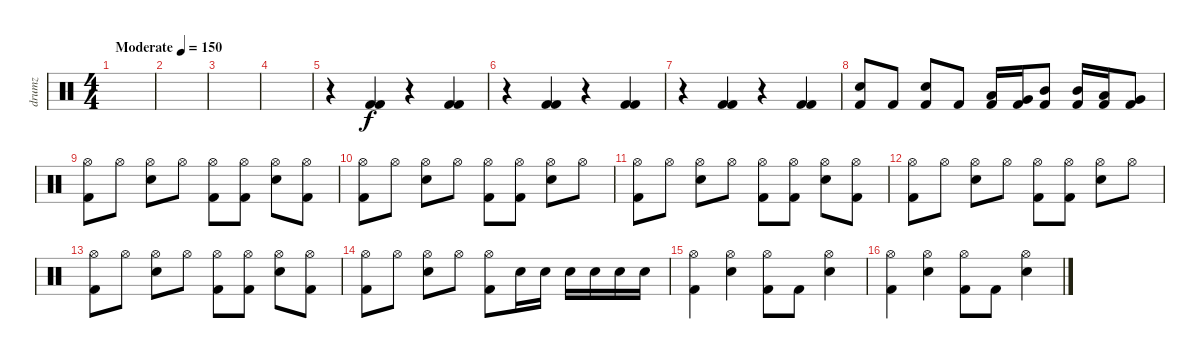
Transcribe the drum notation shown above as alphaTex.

\track ("drumz" "drumz") {instrument percussion}
\staff {score}
\articulation defaults
\ts (4 4)
\tempo (150 "Moderate")
\clef neutral
\ks c
|
|
|
|
r.4 ("Kick (hit) 2" "Kick (hit) 2").4 r.4 ("Kick (hit) 2" "Kick (hit) 2").4 |
r.4 ("Kick (hit) 2" "Kick (hit) 2").4 r.4 ("Kick (hit) 2" "Kick (hit) 2").4 |
r.4 ("Kick (hit) 2" "Kick (hit) 2").4 r.4 ("Kick (hit) 2" "Kick (hit) 2").4 |
("Electric Snare (hit)" "Kick (hit) 2").8 "Kick (hit) 2".8 ("Electric Snare (hit)" "Kick (hit) 2").8 "Kick (hit) 2".8 ("Low Tom (hit)" "Kick (hit) 2").16 ("Very Low Tom (hit)" "Kick (hit) 2").16 ("Mid Tom (hit)" "Kick (hit) 2").8 ("Mid Tom (hit)" "Kick (hit) 2").16 ("Low Tom (hit)" "Kick (hit) 2").16 ("Very Low Tom (hit)" "Kick (hit) 2").8 |
("Hi-Hat (open)" "Kick (hit) 2").8 "Hi-Hat (open)".8 ("Hi-Hat (open)" "Electric Snare (hit)").8 "Hi-Hat (open)".8 ("Hi-Hat (open)" "Kick (hit) 2").8 ("Hi-Hat (open)" "Kick (hit) 2").8 ("Hi-Hat (open)" "Electric Snare (hit)").8 ("Hi-Hat (open)" "Kick (hit) 2").8 |
("Hi-Hat (open)" "Kick (hit) 2").8 "Hi-Hat (open)".8 ("Hi-Hat (open)" "Electric Snare (hit)").8 "Hi-Hat (open)".8 ("Hi-Hat (open)" "Kick (hit) 2").8 ("Hi-Hat (open)" "Kick (hit) 2").8 ("Hi-Hat (open)" "Electric Snare (hit)").8 "Hi-Hat (open)".8 |
("Hi-Hat (open)" "Kick (hit) 2").8 "Hi-Hat (open)".8 ("Hi-Hat (open)" "Electric Snare (hit)").8 "Hi-Hat (open)".8 ("Hi-Hat (open)" "Kick (hit) 2").8 ("Hi-Hat (open)" "Kick (hit) 2").8 ("Hi-Hat (open)" "Electric Snare (hit)").8 ("Hi-Hat (open)" "Kick (hit) 2").8 |
("Hi-Hat (open)" "Kick (hit) 2").8 "Hi-Hat (open)".8 ("Hi-Hat (open)" "Electric Snare (hit)").8 "Hi-Hat (open)".8 ("Hi-Hat (open)" "Kick (hit) 2").8 ("Hi-Hat (open)" "Kick (hit) 2").8 ("Hi-Hat (open)" "Electric Snare (hit)").8 "Hi-Hat (open)".8 |
("Hi-Hat (open)" "Kick (hit) 2").8 "Hi-Hat (open)".8 ("Hi-Hat (open)" "Electric Snare (hit)").8 "Hi-Hat (open)".8 ("Hi-Hat (open)" "Kick (hit) 2").8 ("Hi-Hat (open)" "Kick (hit) 2").8 ("Hi-Hat (open)" "Electric Snare (hit)").8 ("Hi-Hat (open)" "Kick (hit) 2").8 |
("Hi-Hat (open)" "Kick (hit) 2").8 "Hi-Hat (open)".8 ("Hi-Hat (open)" "Electric Snare (hit)").8 "Hi-Hat (open)".8 ("Hi-Hat (open)" "Kick (hit) 2").8 "Electric Snare (hit)".16 "Electric Snare (hit)".16 "Electric Snare (hit)".16 "Electric Snare (hit)".16 "Electric Snare (hit)".16 "Electric Snare (hit)".16 |
("Hi-Hat (open)" "Kick (hit) 2").4 ("Hi-Hat (open)" "Electric Snare (hit)").4 ("Hi-Hat (open)" "Kick (hit) 2").8 "Kick (hit) 2".8 ("Hi-Hat (open)" "Electric Snare (hit)").4 |
("Hi-Hat (open)" "Kick (hit) 2").4 ("Hi-Hat (open)" "Electric Snare (hit)").4 ("Hi-Hat (open)" "Kick (hit) 2").8 "Kick (hit) 2".8 ("Hi-Hat (open)" "Electric Snare (hit)").4
